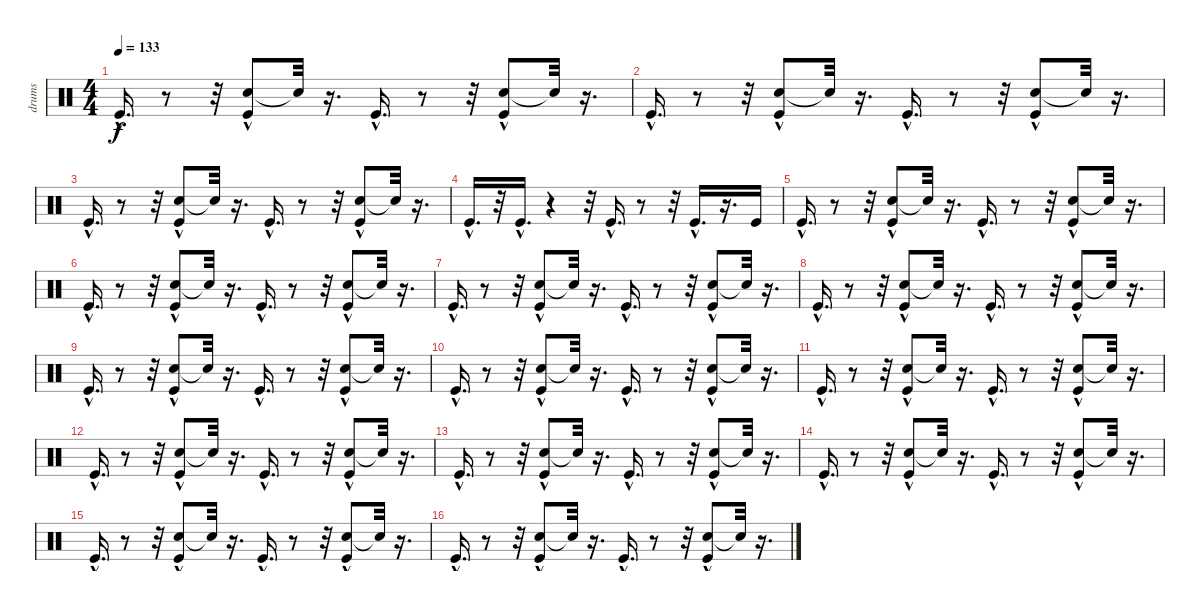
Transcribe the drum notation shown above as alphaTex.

\track ("drums" "drums") {instrument percussion}
\staff {score}
\articulation defaults
\ts (4 4)
\tempo 133
\clef neutral
\ks c "Kick (hit)"{hac}.16{d dy f}
r.8 r.32 ("Hand Clap (hit)" "Kick (hit)"{hac}).8 "Snare (hit)"{t}.32 r.16{d} "Kick (hit)"{hac}.16{d} r.8 r.32 ("Hand Clap (hit)" "Kick (hit)"{hac}).8 "Snare (hit)"{t}.32 r.16{d} |
"Kick (hit)"{hac}.16{d} r.8 r.32 ("Hand Clap (hit)" "Kick (hit)"{hac}).8 "Snare (hit)"{t}.32 r.16{d} "Kick (hit)"{hac}.16{d} r.8 r.32 ("Hand Clap (hit)" "Kick (hit)"{hac}).8 "Snare (hit)"{t}.32 r.16{d} |
"Kick (hit)"{hac}.16{d} r.8 r.32 ("Hand Clap (hit)" "Kick (hit)"{hac}).8 "Snare (hit)"{t}.32 r.16{d} "Kick (hit)"{hac}.16{d} r.8 r.32 ("Hand Clap (hit)" "Kick (hit)"{hac}).8 "Snare (hit)"{t}.32 r.16{d} |
"Kick (hit)"{hac}.16{d} r.32 "Kick (hit)"{hac}.16{d} r.4 r.32 "Kick (hit)"{hac}.16{d} r.8 r.32 "Kick (hit)"{hac}.16{d} r.16{d} "Kick (hit)".16 |
"Kick (hit)"{hac}.16{d} r.8 r.32 ("Hand Clap (hit)" "Kick (hit)"{hac}).8 "Snare (hit)"{t}.32 r.16{d} "Kick (hit)"{hac}.16{d} r.8 r.32 ("Hand Clap (hit)" "Kick (hit)"{hac}).8 "Snare (hit)"{t}.32 r.16{d} |
"Kick (hit)"{hac}.16{d} r.8 r.32 ("Hand Clap (hit)" "Kick (hit)"{hac}).8 "Snare (hit)"{t}.32 r.16{d} "Kick (hit)"{hac}.16{d} r.8 r.32 ("Hand Clap (hit)" "Kick (hit)"{hac}).8 "Snare (hit)"{t}.32 r.16{d} |
"Kick (hit)"{hac}.16{d} r.8 r.32 ("Hand Clap (hit)" "Kick (hit)"{hac}).8 "Snare (hit)"{t}.32 r.16{d} "Kick (hit)"{hac}.16{d} r.8 r.32 ("Hand Clap (hit)" "Kick (hit)"{hac}).8 "Snare (hit)"{t}.32 r.16{d} |
"Kick (hit)"{hac}.16{d} r.8 r.32 ("Hand Clap (hit)" "Kick (hit)"{hac}).8 "Snare (hit)"{t}.32 r.16{d} "Kick (hit)"{hac}.16{d} r.8 r.32 ("Hand Clap (hit)" "Kick (hit)"{hac}).8 "Snare (hit)"{t}.32 r.16{d} |
"Kick (hit)"{hac}.16{d} r.8 r.32 ("Hand Clap (hit)" "Kick (hit)"{hac}).8 "Snare (hit)"{t}.32 r.16{d} "Kick (hit)"{hac}.16{d} r.8 r.32 ("Hand Clap (hit)" "Kick (hit)"{hac}).8 "Snare (hit)"{t}.32 r.16{d} |
"Kick (hit)"{hac}.16{d} r.8 r.32 ("Hand Clap (hit)" "Kick (hit)"{hac}).8 "Snare (hit)"{t}.32 r.16{d} "Kick (hit)"{hac}.16{d} r.8 r.32 ("Hand Clap (hit)" "Kick (hit)"{hac}).8 "Snare (hit)"{t}.32 r.16{d} |
"Kick (hit)"{hac}.16{d} r.8 r.32 ("Hand Clap (hit)" "Kick (hit)"{hac}).8 "Snare (hit)"{t}.32 r.16{d} "Kick (hit)"{hac}.16{d} r.8 r.32 ("Hand Clap (hit)" "Kick (hit)"{hac}).8 "Snare (hit)"{t}.32 r.16{d} |
"Kick (hit)"{hac}.16{d} r.8 r.32 ("Hand Clap (hit)" "Kick (hit)"{hac}).8 "Snare (hit)"{t}.32 r.16{d} "Kick (hit)"{hac}.16{d} r.8 r.32 ("Hand Clap (hit)" "Kick (hit)"{hac}).8 "Snare (hit)"{t}.32 r.16{d} |
"Kick (hit)"{hac}.16{d} r.8 r.32 ("Hand Clap (hit)" "Kick (hit)"{hac}).8 "Snare (hit)"{t}.32 r.16{d} "Kick (hit)"{hac}.16{d} r.8 r.32 ("Hand Clap (hit)" "Kick (hit)"{hac}).8 "Snare (hit)"{t}.32 r.16{d} |
"Kick (hit)"{hac}.16{d} r.8 r.32 ("Hand Clap (hit)" "Kick (hit)"{hac}).8 "Snare (hit)"{t}.32 r.16{d} "Kick (hit)"{hac}.16{d} r.8 r.32 ("Hand Clap (hit)" "Kick (hit)"{hac}).8 "Snare (hit)"{t}.32 r.16{d} |
"Kick (hit)"{hac}.16{d} r.8 r.32 ("Hand Clap (hit)" "Kick (hit)"{hac}).8 "Snare (hit)"{t}.32 r.16{d} "Kick (hit)"{hac}.16{d} r.8 r.32 ("Hand Clap (hit)" "Kick (hit)"{hac}).8 "Snare (hit)"{t}.32 r.16{d} |
"Kick (hit)"{hac}.16{d} r.8 r.32 ("Hand Clap (hit)" "Kick (hit)"{hac}).8 "Snare (hit)"{t}.32 r.16{d} "Kick (hit)"{hac}.16{d} r.8 r.32 ("Hand Clap (hit)" "Kick (hit)"{hac}).8 "Snare (hit)"{t}.32 r.16{d}
